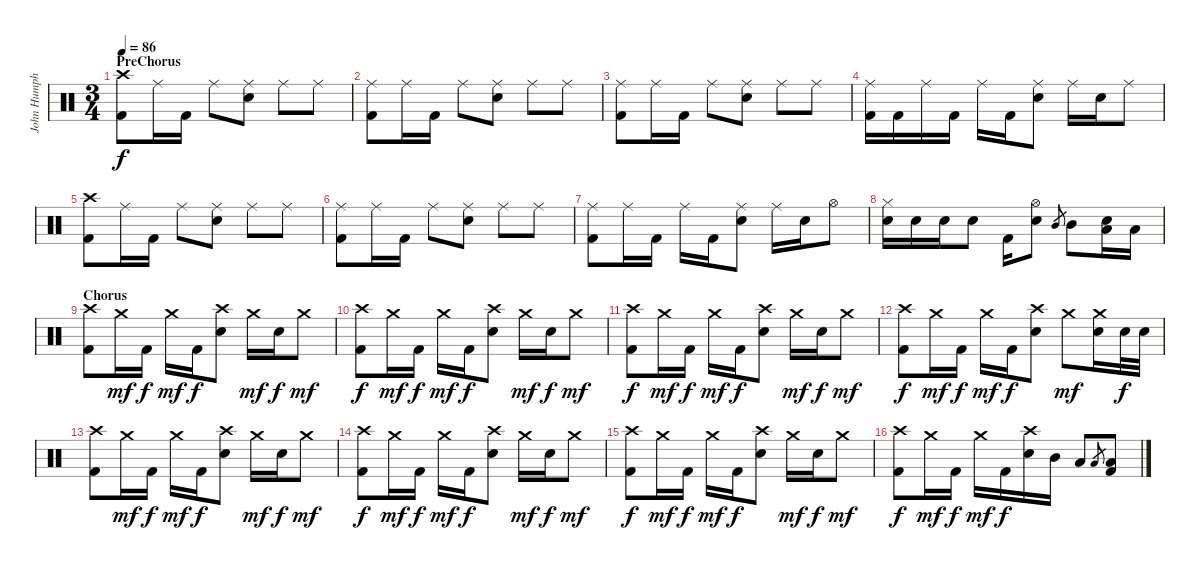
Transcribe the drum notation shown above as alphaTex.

\track ("John Humphrey" "John Humph") {instrument percussion}
\staff {score}
\articulation defaults
\ts (3 4)
\section ("" "PreChorus")
\tempo 86
\clef neutral
\ks c
("Crash high (hit)" "Kick (hit) 2").8{dy f} "Ride (middle)".16 "Kick (hit) 2".16 "Ride (middle)".8 ("Ride (middle)" "Snare (hit) 2").8 "Ride (middle)".8 "Ride (middle)".8 |
("Ride (middle)" "Kick (hit) 2").8 "Ride (middle)".16 "Kick (hit) 2".16 "Ride (middle)".8 ("Ride (middle)" "Snare (hit) 2").8 "Ride (middle)".8 "Ride (middle)".8 |
("Ride (middle)" "Kick (hit) 2").8 "Ride (middle)".16 "Kick (hit) 2".16 "Ride (middle)".8 ("Ride (middle)" "Snare (hit) 2").8 "Ride (middle)".8 "Ride (middle)".8 |
("Ride (middle)" "Kick (hit) 2").16 "Kick (hit) 2".16 "Ride (middle)".16 "Kick (hit) 2".16 "Ride (middle)".16 "Kick (hit) 2".16 ("Ride (middle)" "Snare (hit) 2").8 "Ride (middle)".16 "Snare (hit) 2".16 "Ride (middle)".8 |
("Crash high (hit)" "Kick (hit) 2").8 "Ride (middle)".16 "Kick (hit) 2".16 "Ride (middle)".8 ("Ride (middle)" "Snare (hit) 2").8 "Ride (middle)".8 "Ride (middle)".8 |
("Ride (middle)" "Kick (hit) 2").8 "Ride (middle)".16 "Kick (hit) 2".16 "Ride (middle)".8 ("Ride (middle)" "Snare (hit) 2").8 "Ride (middle)".8 "Ride (middle)".8 |
("Ride (middle)" "Kick (hit) 2").8 "Ride (middle)".16 "Kick (hit) 2".16 "Ride (middle)".16 "Kick (hit) 2".16 ("Ride (middle)" "Snare (hit) 2").8 "Ride (middle)".16 "Snare (hit) 2".16 "Hi-Hat (open)".8 |
("Hi-Hat (closed)" "Snare (hit) 2").16 "Snare (hit) 2".16 "Snare (hit) 2".16 "Snare (hit) 2".8 "Kick (hit) 2".16 ("Hi-Hat (open)" "Snare (hit) 2").8 "Mid Tom (hit)".8{gr} "Mid Tom (hit)".8 ("Snare (hit) 2" "Low Tom (hit)").16 "Low Floor Tom (hit)".16 |
\section ("" "Chorus")
("Crash high (hit)" "Kick (hit) 2").8 "Crash medium (hit)".16{dy mf} "Kick (hit) 2".16{dy f} "Crash medium (hit)".16{dy mf} "Kick (hit) 2".16{dy f} ("Crash high (hit)" "Snare (hit) 2").8 "Crash medium (hit)".16{dy mf} "Snare (hit) 2".16{dy f} "Crash medium (hit)".8{dy mf} |
("Crash high (hit)" "Kick (hit) 2").8{dy f} "Crash medium (hit)".16{dy mf} "Kick (hit) 2".16{dy f} "Crash medium (hit)".16{dy mf} "Kick (hit) 2".16{dy f} ("Crash high (hit)" "Snare (hit) 2").8 "Crash medium (hit)".16{dy mf} "Snare (hit) 2".16{dy f} "Crash medium (hit)".8{dy mf} |
("Crash high (hit)" "Kick (hit) 2").8{dy f} "Crash medium (hit)".16{dy mf} "Kick (hit) 2".16{dy f} "Crash medium (hit)".16{dy mf} "Kick (hit) 2".16{dy f} ("Crash high (hit)" "Snare (hit) 2").8 "Crash medium (hit)".16{dy mf} "Snare (hit) 2".16{dy f} "Crash medium (hit)".8{dy mf} |
("Crash high (hit)" "Kick (hit) 2").8{dy f} "Crash medium (hit)".16{dy mf} "Kick (hit) 2".16{dy f} "Crash medium (hit)".16{dy mf} "Kick (hit) 2".16{dy f} ("Crash high (hit)" "Snare (hit) 2").8 "Crash medium (hit)".8{dy mf} ("Crash medium (hit)" "Snare (hit) 2").16 "Snare (hit) 2".32{dy f} "Snare (hit) 2".32 |
("Crash high (hit)" "Kick (hit) 2").8 "Crash medium (hit)".16{dy mf} "Kick (hit) 2".16{dy f} "Crash medium (hit)".16{dy mf} "Kick (hit) 2".16{dy f} ("Crash high (hit)" "Snare (hit) 2").8 "Crash medium (hit)".16{dy mf} "Snare (hit) 2".16{dy f} "Crash medium (hit)".8{dy mf} |
("Crash high (hit)" "Kick (hit) 2").8{dy f} "Crash medium (hit)".16{dy mf} "Kick (hit) 2".16{dy f} "Crash medium (hit)".16{dy mf} "Kick (hit) 2".16{dy f} ("Crash high (hit)" "Snare (hit) 2").8 "Crash medium (hit)".16{dy mf} "Snare (hit) 2".16{dy f} "Crash medium (hit)".8{dy mf} |
("Crash high (hit)" "Kick (hit) 2").8{dy f} "Crash medium (hit)".16{dy mf} "Kick (hit) 2".16{dy f} "Crash medium (hit)".16{dy mf} "Kick (hit) 2".16{dy f} ("Crash high (hit)" "Snare (hit) 2").8 "Crash medium (hit)".16{dy mf} "Snare (hit) 2".16{dy f} "Crash medium (hit)".8{dy mf} |
("Crash high (hit)" "Kick (hit) 2").8{dy f} "Crash medium (hit)".16{dy mf} "Kick (hit) 2".16{dy f} "Crash medium (hit)".16{dy mf} "Kick (hit) 2".16{dy f} ("Crash high (hit)" "Snare (hit) 2").16 "Mid Tom (hit)".16 "Low Tom (hit)".8 "Low Floor Tom (hit)".8{gr} ("Low Floor Tom (hit)" "Kick (hit) 2").8
